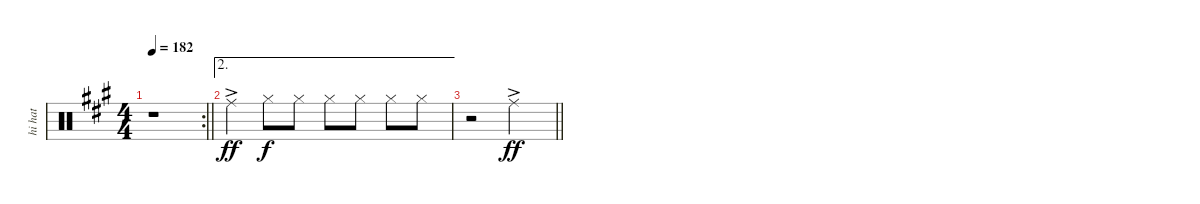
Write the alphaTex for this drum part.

\track ("hi hat" "hi hat") {instrument percussion}
\staff {score}
\articulation defaults
\rc 2
\ts (4 4)
\tempo 182
\clef neutral
\barLineRight lightlight
\ks f#minor
r.1{dy f} |
\ae 2 "Ride (middle)"{ac}.4{dy ff} "Hi-Hat (closed)".8{dy f} "Hi-Hat (closed)".8 "Hi-Hat (closed)".8 "Hi-Hat (closed)".8 "Hi-Hat (closed)".8 "Hi-Hat (closed)".8
|
\barLineRight lightlight
r.2 "Ride (middle)"{ac}.2{dy ff}
